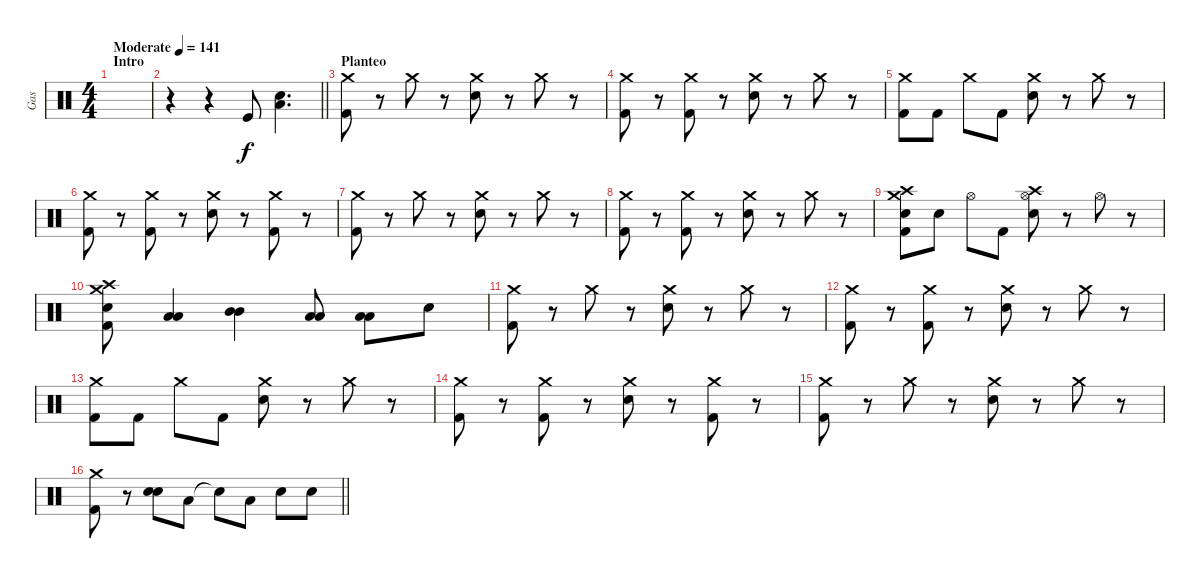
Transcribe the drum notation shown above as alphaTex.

\track ("Gas" "Gas") {instrument percussion}
\staff {score}
\articulation defaults
\ts (4 4)
\section ("" "Intro")
\tempo (141 "Moderate")
\clef neutral
\ks c
|
\barLineRight lightlight
r.4 r.4 "Kick (hit)".8 ("Electric Snare (hit)" "Low Tom (hit)").4{d} |
\section ("" "Planteo")
("Crash medium (hit)" "Kick (hit) 2").8 r.8 "Crash medium (hit)".8 r.8 ("Crash medium (hit)" "Electric Snare (hit)").8 r.8 "Crash medium (hit)".8 r.8 |
("Crash medium (hit)" "Kick (hit) 2").8 r.8 ("Crash medium (hit)" "Kick (hit) 2").8 r.8 ("Crash medium (hit)" "Electric Snare (hit)").8 r.8 "Crash medium (hit)".8 r.8 |
("Crash medium (hit)" "Kick (hit) 2").8 "Kick (hit) 2".8 "Crash medium (hit)".8 "Kick (hit) 2".8 ("Crash medium (hit)" "Electric Snare (hit)").8 r.8 "Crash medium (hit)".8 r.8 |
("Crash medium (hit)" "Kick (hit) 2").8 r.8 ("Crash medium (hit)" "Kick (hit) 2").8 r.8 ("Crash medium (hit)" "Electric Snare (hit)").8 r.8 ("Crash medium (hit)" "Kick (hit) 2").8 r.8 |
("Crash medium (hit)" "Kick (hit) 2").8 r.8 "Crash medium (hit)".8 r.8 ("Crash medium (hit)" "Electric Snare (hit)").8 r.8 "Crash medium (hit)".8 r.8 |
("Crash medium (hit)" "Kick (hit) 2").8 r.8 ("Crash medium (hit)" "Kick (hit) 2").8 r.8 ("Crash medium (hit)" "Electric Snare (hit)").8 r.8 "Crash medium (hit)".8 r.8 |
("Crash high (hit)" "Crash medium (hit)" "Electric Snare (hit)" "Kick (hit) 2").8 "Electric Snare (hit)".8 "Hi-Hat (open)".8 "Kick (hit) 2".8 ("Crash high (hit)" "Hi-Hat (open)" "Electric Snare (hit)").8 r.8 "Hi-Hat (open)".8 r.8 |
("Crash high (hit)" "Crash medium (hit)" "Electric Snare (hit)" "Kick (hit) 2").8 ("Low Tom (hit)" "Low Tom (hit)").4{bd 60} ("Mid Tom (hit)" "Mid Tom (hit)").4{bd 60} ("Low Tom (hit)" "Low Tom (hit)").8{bd 60} ("Low Tom (hit)" "Low Tom (hit)").8{bd 60} "Electric Snare (hit)".8 |
("Crash medium (hit)" "Kick (hit) 2").8 r.8 "Crash medium (hit)".8 r.8 ("Crash medium (hit)" "Electric Snare (hit)").8 r.8 "Crash medium (hit)".8 r.8 |
("Crash medium (hit)" "Kick (hit) 2").8 r.8 ("Crash medium (hit)" "Kick (hit) 2").8 r.8 ("Crash medium (hit)" "Electric Snare (hit)").8 r.8 "Crash medium (hit)".8 r.8 |
("Crash medium (hit)" "Kick (hit) 2").8 "Kick (hit) 2".8 "Crash medium (hit)".8 "Kick (hit) 2".8 ("Crash medium (hit)" "Electric Snare (hit)").8 r.8 "Crash medium (hit)".8 r.8 |
("Crash medium (hit)" "Kick (hit) 2").8 r.8 ("Crash medium (hit)" "Kick (hit) 2").8 r.8 ("Crash medium (hit)" "Electric Snare (hit)").8 r.8 ("Crash medium (hit)" "Kick (hit) 2").8 r.8 |
("Crash medium (hit)" "Kick (hit) 2").8 r.8 "Crash medium (hit)".8 r.8 ("Crash medium (hit)" "Electric Snare (hit)").8 r.8 "Crash medium (hit)".8 r.8 |
\barLineRight lightlight
("Crash medium (hit)" "Kick (hit) 2").8 r.8 ("Electric Snare (hit)" "Electric Snare (hit)").8{bd 60} "Low Tom (hit)".8 "Snare (hit)"{t}.8 "Low Tom (hit)".8 "Electric Snare (hit)".8 "Electric Snare (hit)".8
